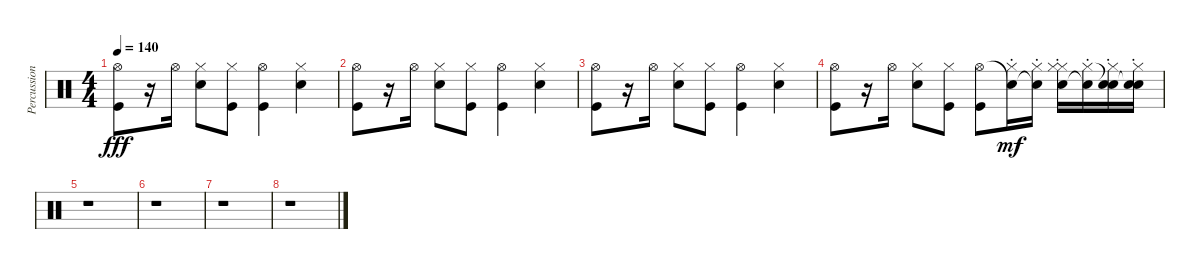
\track ("Percussion" "Percussion") {instrument percussion}
\staff {score}
\articulation defaults
\ts (4 4)
\tempo 140
\clef neutral
\ks c
("Hi-Hat (open)" "Kick (hit)").8{dy fff volume 15} r.16 "Hi-Hat (open)".16 ("Snare (hit) 2" "Hi-Hat (closed)").8 ("Hi-Hat (closed)" "Kick (hit)").8 ("Hi-Hat (open)" "Kick (hit)").4 ("Snare (hit) 2" "Hi-Hat (closed)").4 |
("Hi-Hat (open)" "Kick (hit)").8 r.16 "Hi-Hat (open)".16 ("Snare (hit) 2" "Hi-Hat (closed)").8 ("Hi-Hat (closed)" "Kick (hit)").8 ("Hi-Hat (open)" "Kick (hit)").4 ("Snare (hit) 2" "Hi-Hat (closed)").4 |
("Hi-Hat (open)" "Kick (hit)").8 r.16 "Hi-Hat (open)".16 ("Snare (hit) 2" "Hi-Hat (closed)").8 ("Hi-Hat (closed)" "Kick (hit)").8 ("Hi-Hat (open)" "Kick (hit)").4 ("Snare (hit) 2" "Hi-Hat (closed)").4 |
("Hi-Hat (open)" "Kick (hit)").8 r.16 "Hi-Hat (open)".16 ("Snare (hit) 2" "Hi-Hat (closed)").8 ("Hi-Hat (closed)" "Kick (hit)").8 ("Hi-Hat (open)" "Kick (hit)").8 ("Snare (hit)"{t} "Hi-Hat (closed)"{st}).16{dy mf} ("Snare (hit)"{t} "Hi-Hat (closed)"{st}).16 ("Snare (hit) 2" "Hi-Hat (closed)" "Hi-Hat (closed)"{st}).16 ("Snare (hit)"{t} "Hi-Hat (closed)"{st}).16 ("Snare (hit) 2" "Snare (hit)"{t} "Hi-Hat (closed)"{st}).16 ("Snare (hit) 2" "Snare (hit)"{t} "Hi-Hat (closed)"{st}).16 |
r.1 |
r.1 |
r.1 |
r.1
